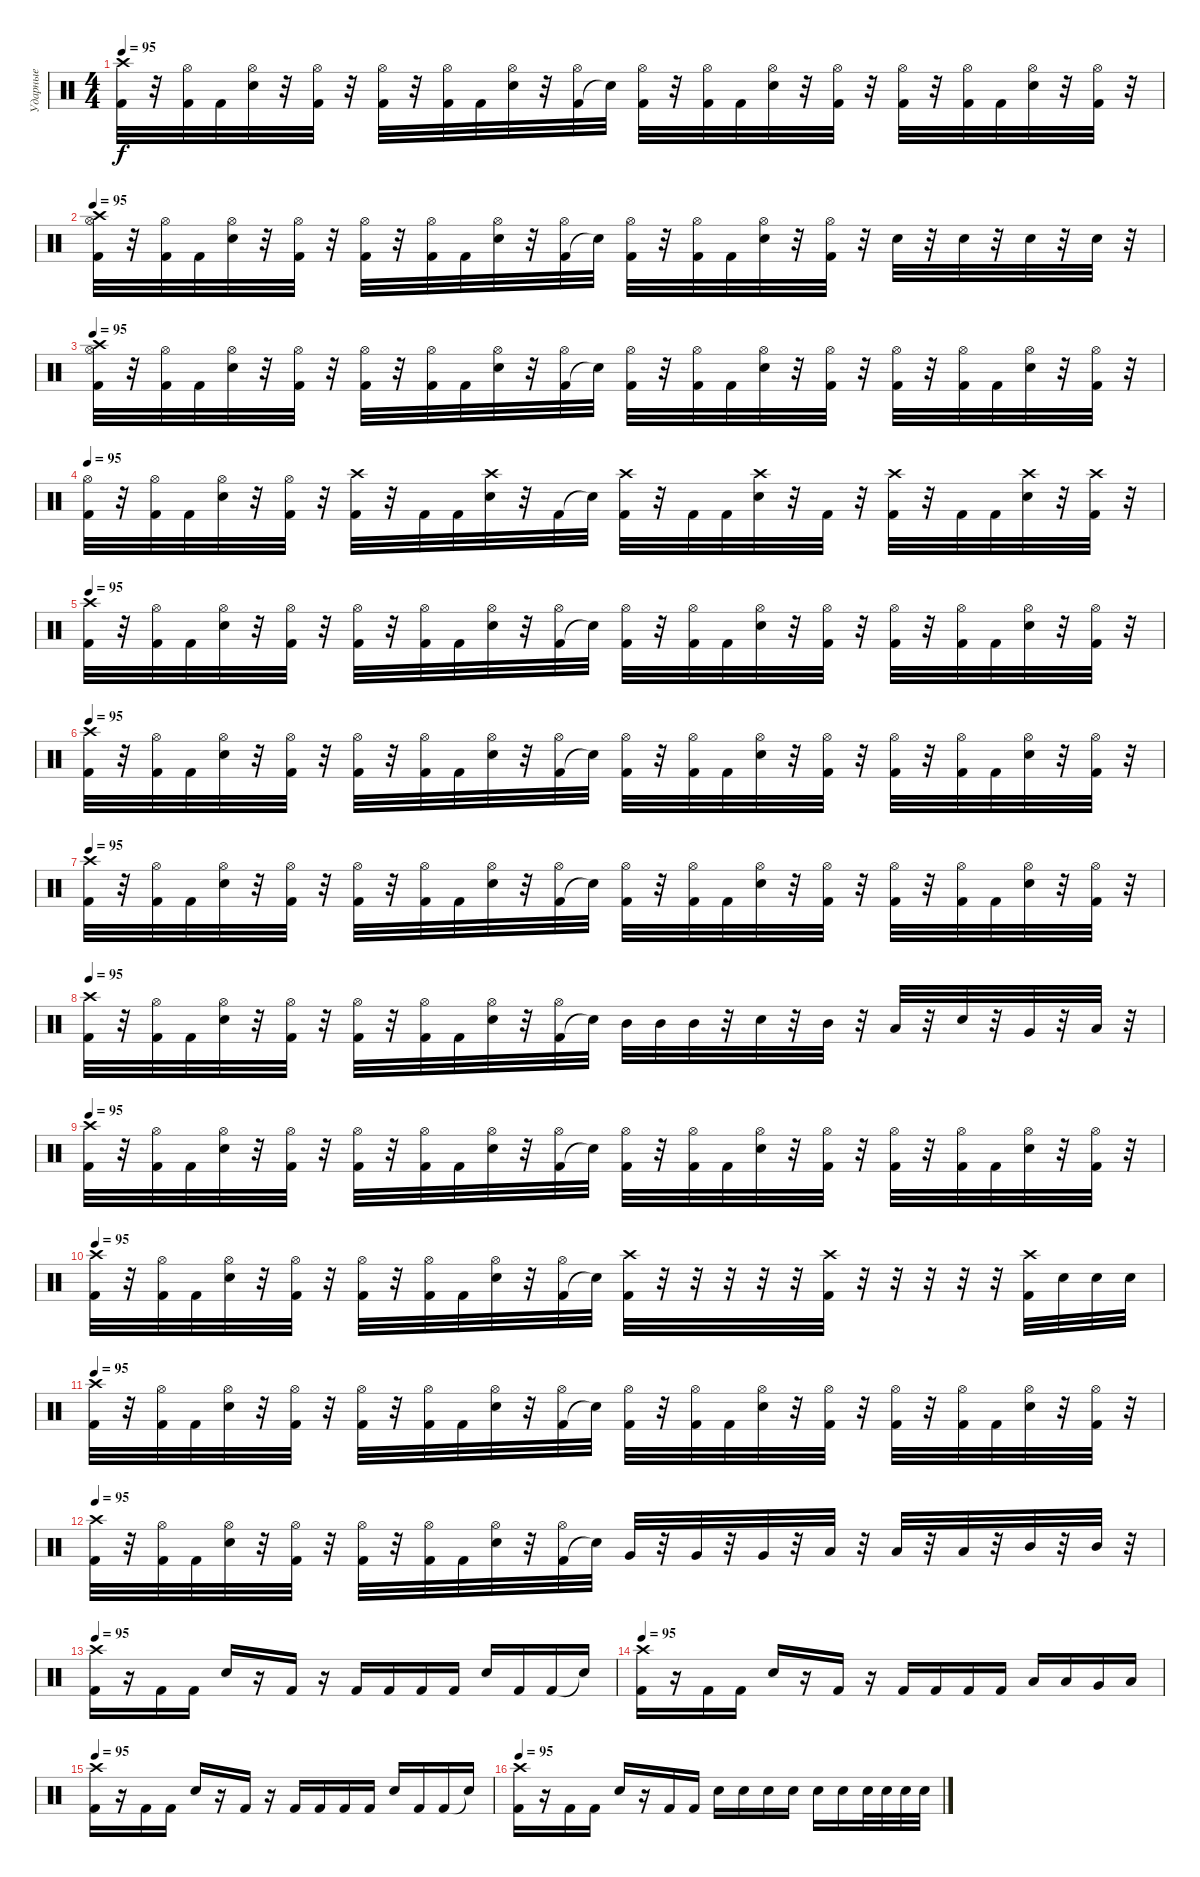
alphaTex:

\track ("Ударные" "Ударные") {instrument percussion}
\staff {score}
\articulation defaults
\ts (4 4)
\tempo 95
\clef neutral
\ks c
("Kick (hit) 2" "Crash high (hit)").32{dy f} r.32 ("Kick (hit) 2" "Hi-Hat (open)").32 "Kick (hit) 2".32 ("Electric Snare (hit)" "Hi-Hat (open)").32 r.32 ("Kick (hit) 2" "Hi-Hat (open)").32 r.32 ("Kick (hit) 2" "Hi-Hat (open)").32 r.32 ("Kick (hit) 2" "Hi-Hat (open)").32 "Kick (hit) 2".32 ("Electric Snare (hit)" "Hi-Hat (open)").32 r.32 ("Kick (hit) 2" "Hi-Hat (open)").32 "Snare (hit)"{t}.32 ("Kick (hit) 2" "Hi-Hat (open)").32 r.32 ("Kick (hit) 2" "Hi-Hat (open)").32 "Kick (hit) 2".32 ("Electric Snare (hit)" "Hi-Hat (open)").32 r.32 ("Kick (hit) 2" "Hi-Hat (open)").32 r.32 ("Kick (hit) 2" "Hi-Hat (open)").32 r.32 ("Kick (hit) 2" "Hi-Hat (open)").32 "Kick (hit) 2".32 ("Electric Snare (hit)" "Hi-Hat (open)").32 r.32 ("Kick (hit) 2" "Hi-Hat (open)").32 r.32 |
\tempo 95
("Kick (hit) 2" "Hi-Hat (open)" "Crash high (hit)").32 r.32 ("Kick (hit) 2" "Hi-Hat (open)").32 "Kick (hit) 2".32 ("Electric Snare (hit)" "Hi-Hat (open)").32 r.32 ("Kick (hit) 2" "Hi-Hat (open)").32 r.32 ("Kick (hit) 2" "Hi-Hat (open)").32 r.32 ("Kick (hit) 2" "Hi-Hat (open)").32 "Kick (hit) 2".32 ("Electric Snare (hit)" "Hi-Hat (open)").32 r.32 ("Kick (hit) 2" "Hi-Hat (open)").32 "Snare (hit)"{t}.32 ("Kick (hit) 2" "Hi-Hat (open)").32 r.32 ("Kick (hit) 2" "Hi-Hat (open)").32 "Kick (hit) 2".32 ("Electric Snare (hit)" "Hi-Hat (open)").32 r.32 ("Kick (hit) 2" "Hi-Hat (open)").32 r.32 "Electric Snare (hit)".32 r.32 "Electric Snare (hit)".32 r.32 "Electric Snare (hit)".32 r.32 "Electric Snare (hit)".32 r.32 |
\tempo 95
("Kick (hit) 2" "Hi-Hat (open)" "Crash high (hit)").32 r.32 ("Kick (hit) 2" "Hi-Hat (open)").32 "Kick (hit) 2".32 ("Electric Snare (hit)" "Hi-Hat (open)").32 r.32 ("Kick (hit) 2" "Hi-Hat (open)").32 r.32 ("Kick (hit) 2" "Hi-Hat (open)").32 r.32 ("Kick (hit) 2" "Hi-Hat (open)").32 "Kick (hit) 2".32 ("Electric Snare (hit)" "Hi-Hat (open)").32 r.32 ("Kick (hit) 2" "Hi-Hat (open)").32 "Snare (hit)"{t}.32 ("Kick (hit) 2" "Hi-Hat (open)").32 r.32 ("Kick (hit) 2" "Hi-Hat (open)").32 "Kick (hit) 2".32 ("Electric Snare (hit)" "Hi-Hat (open)").32 r.32 ("Kick (hit) 2" "Hi-Hat (open)").32 r.32 ("Kick (hit) 2" "Hi-Hat (open)").32 r.32 ("Kick (hit) 2" "Hi-Hat (open)").32 "Kick (hit) 2".32 ("Electric Snare (hit)" "Hi-Hat (open)").32 r.32 ("Kick (hit) 2" "Hi-Hat (open)").32 r.32 |
\tempo 95
("Kick (hit) 2" "Hi-Hat (open)").32 r.32 ("Kick (hit) 2" "Hi-Hat (open)").32 "Kick (hit) 2".32 ("Electric Snare (hit)" "Hi-Hat (open)").32 r.32 ("Kick (hit) 2" "Hi-Hat (open)").32 r.32 ("Kick (hit) 2" "Crash high (hit)").32 r.32 "Kick (hit) 2".32 "Kick (hit) 2".32 ("Electric Snare (hit)" "Crash high (hit)").32 r.32 "Kick (hit) 2".32 "Snare (hit)"{t}.32 ("Kick (hit) 2" "Crash high (hit)").32 r.32 "Kick (hit) 2".32 "Kick (hit) 2".32 ("Electric Snare (hit)" "Crash high (hit)").32 r.32 "Kick (hit) 2".32 r.32 ("Kick (hit) 2" "Crash high (hit)").32 r.32 "Kick (hit) 2".32 "Kick (hit) 2".32 ("Electric Snare (hit)" "Crash high (hit)").32 r.32 ("Kick (hit) 2" "Crash high (hit)").32 r.32 |
\tempo 95
("Kick (hit) 2" "Crash high (hit)").32 r.32 ("Kick (hit) 2" "Hi-Hat (open)").32 "Kick (hit) 2".32 ("Electric Snare (hit)" "Hi-Hat (open)").32 r.32 ("Kick (hit) 2" "Hi-Hat (open)").32 r.32 ("Kick (hit) 2" "Hi-Hat (open)").32 r.32 ("Kick (hit) 2" "Hi-Hat (open)").32 "Kick (hit) 2".32 ("Electric Snare (hit)" "Hi-Hat (open)").32 r.32 ("Kick (hit) 2" "Hi-Hat (open)").32 "Snare (hit)"{t}.32 ("Kick (hit) 2" "Hi-Hat (open)").32 r.32 ("Kick (hit) 2" "Hi-Hat (open)").32 "Kick (hit) 2".32 ("Electric Snare (hit)" "Hi-Hat (open)").32 r.32 ("Kick (hit) 2" "Hi-Hat (open)").32 r.32 ("Kick (hit) 2" "Hi-Hat (open)").32 r.32 ("Kick (hit) 2" "Hi-Hat (open)").32 "Kick (hit) 2".32 ("Electric Snare (hit)" "Hi-Hat (open)").32 r.32 ("Kick (hit) 2" "Hi-Hat (open)").32 r.32 |
\tempo 95
("Kick (hit) 2" "Crash high (hit)").32 r.32 ("Kick (hit) 2" "Hi-Hat (open)").32 "Kick (hit) 2".32 ("Electric Snare (hit)" "Hi-Hat (open)").32 r.32 ("Kick (hit) 2" "Hi-Hat (open)").32 r.32 ("Kick (hit) 2" "Hi-Hat (open)").32 r.32 ("Kick (hit) 2" "Hi-Hat (open)").32 "Kick (hit) 2".32 ("Electric Snare (hit)" "Hi-Hat (open)").32 r.32 ("Kick (hit) 2" "Hi-Hat (open)").32 "Snare (hit)"{t}.32 ("Kick (hit) 2" "Hi-Hat (open)").32 r.32 ("Kick (hit) 2" "Hi-Hat (open)").32 "Kick (hit) 2".32 ("Electric Snare (hit)" "Hi-Hat (open)").32 r.32 ("Kick (hit) 2" "Hi-Hat (open)").32 r.32 ("Kick (hit) 2" "Hi-Hat (open)").32 r.32 ("Kick (hit) 2" "Hi-Hat (open)").32 "Kick (hit) 2".32 ("Electric Snare (hit)" "Hi-Hat (open)").32 r.32 ("Kick (hit) 2" "Hi-Hat (open)").32 r.32 |
\tempo 95
("Kick (hit) 2" "Crash high (hit)").32 r.32 ("Kick (hit) 2" "Hi-Hat (open)").32 "Kick (hit) 2".32 ("Electric Snare (hit)" "Hi-Hat (open)").32 r.32 ("Kick (hit) 2" "Hi-Hat (open)").32 r.32 ("Kick (hit) 2" "Hi-Hat (open)").32 r.32 ("Kick (hit) 2" "Hi-Hat (open)").32 "Kick (hit) 2".32 ("Electric Snare (hit)" "Hi-Hat (open)").32 r.32 ("Kick (hit) 2" "Hi-Hat (open)").32 "Snare (hit)"{t}.32 ("Kick (hit) 2" "Hi-Hat (open)").32 r.32 ("Kick (hit) 2" "Hi-Hat (open)").32 "Kick (hit) 2".32 ("Electric Snare (hit)" "Hi-Hat (open)").32 r.32 ("Kick (hit) 2" "Hi-Hat (open)").32 r.32 ("Kick (hit) 2" "Hi-Hat (open)").32 r.32 ("Kick (hit) 2" "Hi-Hat (open)").32 "Kick (hit) 2".32 ("Electric Snare (hit)" "Hi-Hat (open)").32 r.32 ("Kick (hit) 2" "Hi-Hat (open)").32 r.32 |
\tempo 95
("Kick (hit) 2" "Crash high (hit)").32 r.32 ("Kick (hit) 2" "Hi-Hat (open)").32 "Kick (hit) 2".32 ("Electric Snare (hit)" "Hi-Hat (open)").32 r.32 ("Kick (hit) 2" "Hi-Hat (open)").32 r.32 ("Kick (hit) 2" "Hi-Hat (open)").32 r.32 ("Kick (hit) 2" "Hi-Hat (open)").32 "Kick (hit) 2".32 ("Electric Snare (hit)" "Hi-Hat (open)").32 r.32 ("Kick (hit) 2" "Hi-Hat (open)").32 "Snare (hit)"{t}.32 "Mid Tom (hit)".32 "Mid Tom (hit)".32 "Mid Tom (hit)".32 r.32 "Electric Snare (hit)".32 r.32 "Mid Tom (hit)".32 r.32 "Low Tom (hit)".32 r.32 "Electric Snare (hit)".32 r.32 "Very Low Tom (hit)".32 r.32 "Low Floor Tom (hit)".32 r.32 |
\tempo 95
("Kick (hit) 2" "Crash high (hit)").32 r.32 ("Kick (hit) 2" "Hi-Hat (open)").32 "Kick (hit) 2".32 ("Electric Snare (hit)" "Hi-Hat (open)").32 r.32 ("Kick (hit) 2" "Hi-Hat (open)").32 r.32 ("Kick (hit) 2" "Hi-Hat (open)").32 r.32 ("Kick (hit) 2" "Hi-Hat (open)").32 "Kick (hit) 2".32 ("Electric Snare (hit)" "Hi-Hat (open)").32 r.32 ("Kick (hit) 2" "Hi-Hat (open)").32 "Snare (hit)"{t}.32 ("Kick (hit) 2" "Hi-Hat (open)").32 r.32 ("Kick (hit) 2" "Hi-Hat (open)").32 "Kick (hit) 2".32 ("Electric Snare (hit)" "Hi-Hat (open)").32 r.32 ("Kick (hit) 2" "Hi-Hat (open)").32 r.32 ("Kick (hit) 2" "Hi-Hat (open)").32 r.32 ("Kick (hit) 2" "Hi-Hat (open)").32 "Kick (hit) 2".32 ("Electric Snare (hit)" "Hi-Hat (open)").32 r.32 ("Kick (hit) 2" "Hi-Hat (open)").32 r.32 |
\tempo 95
("Kick (hit) 2" "Crash high (hit)").32 r.32 ("Kick (hit) 2" "Hi-Hat (open)").32 "Kick (hit) 2".32 ("Electric Snare (hit)" "Hi-Hat (open)").32 r.32 ("Kick (hit) 2" "Hi-Hat (open)").32 r.32 ("Kick (hit) 2" "Hi-Hat (open)").32 r.32 ("Kick (hit) 2" "Hi-Hat (open)").32 "Kick (hit) 2".32 ("Electric Snare (hit)" "Hi-Hat (open)").32 r.32 ("Kick (hit) 2" "Hi-Hat (open)").32 "Snare (hit)"{t}.32 ("Kick (hit) 2" "Crash high (hit)").32 r.32 r.32 r.32 r.32 r.32 ("Kick (hit) 2" "Crash high (hit)").32 r.32 r.32 r.32 r.32 r.32 ("Kick (hit) 2" "Crash high (hit)").32 "Electric Snare (hit)".32 "Electric Snare (hit)".32 "Electric Snare (hit)".32 |
\tempo 95
("Kick (hit) 2" "Crash high (hit)").32 r.32 ("Kick (hit) 2" "Hi-Hat (open)").32 "Kick (hit) 2".32 ("Electric Snare (hit)" "Hi-Hat (open)").32 r.32 ("Kick (hit) 2" "Hi-Hat (open)").32 r.32 ("Kick (hit) 2" "Hi-Hat (open)").32 r.32 ("Kick (hit) 2" "Hi-Hat (open)").32 "Kick (hit) 2".32 ("Electric Snare (hit)" "Hi-Hat (open)").32 r.32 ("Kick (hit) 2" "Hi-Hat (open)").32 "Snare (hit)"{t}.32 ("Kick (hit) 2" "Hi-Hat (open)").32 r.32 ("Kick (hit) 2" "Hi-Hat (open)").32 "Kick (hit) 2".32 ("Electric Snare (hit)" "Hi-Hat (open)").32 r.32 ("Kick (hit) 2" "Hi-Hat (open)").32 r.32 ("Kick (hit) 2" "Hi-Hat (open)").32 r.32 ("Kick (hit) 2" "Hi-Hat (open)").32 "Kick (hit) 2".32 ("Electric Snare (hit)" "Hi-Hat (open)").32 r.32 ("Kick (hit) 2" "Hi-Hat (open)").32 r.32 |
\tempo 95
("Kick (hit) 2" "Crash high (hit)").32 r.32 ("Kick (hit) 2" "Hi-Hat (open)").32 "Kick (hit) 2".32 ("Electric Snare (hit)" "Hi-Hat (open)").32 r.32 ("Kick (hit) 2" "Hi-Hat (open)").32 r.32 ("Kick (hit) 2" "Hi-Hat (open)").32 r.32 ("Kick (hit) 2" "Hi-Hat (open)").32 "Kick (hit) 2".32 ("Electric Snare (hit)" "Hi-Hat (open)").32 r.32 ("Kick (hit) 2" "Hi-Hat (open)").32 "Snare (hit)"{t}.32 "Very Low Tom (hit)".32 r.32 "Very Low Tom (hit)".32 r.32 "Very Low Tom (hit)".32 r.32 "Low Tom (hit)".32 r.32 "Low Tom (hit)".32 r.32 "Low Tom (hit)".32 r.32 "Mid Tom (hit)".32 r.32 "Mid Tom (hit)".32 r.32 |
\tempo 95
("Kick (hit) 2" "Crash high (hit)").16 r.16 "Kick (hit) 2".16 "Kick (hit) 2".16 "Electric Snare (hit)".16 r.16 "Kick (hit) 2".16 r.16 "Kick (hit) 2".16 "Kick (hit) 2".16 "Kick (hit) 2".16 "Kick (hit) 2".16 "Electric Snare (hit)".16 "Kick (hit) 2".16 "Kick (hit) 2".16 "Snare (hit)"{t}.16 |
\tempo 95
("Kick (hit) 2" "Crash high (hit)").16 r.16 "Kick (hit) 2".16 "Kick (hit) 2".16 "Electric Snare (hit)".16 r.16 "Kick (hit) 2".16 r.16 "Kick (hit) 2".16 "Kick (hit) 2".16 "Kick (hit) 2".16 "Kick (hit) 2".16 "Low Tom (hit)".16 "Low Tom (hit)".16 "Very Low Tom (hit)".16 "Low Floor Tom (hit)".16 |
\tempo 95
("Kick (hit) 2" "Crash high (hit)").16 r.16 "Kick (hit) 2".16 "Kick (hit) 2".16 "Electric Snare (hit)".16 r.16 "Kick (hit) 2".16 r.16 "Kick (hit) 2".16 "Kick (hit) 2".16 "Kick (hit) 2".16 "Kick (hit) 2".16 "Electric Snare (hit)".16 "Kick (hit) 2".16 "Kick (hit) 2".16 "Snare (hit)"{t}.16 |
\tempo 95
("Kick (hit) 2" "Crash high (hit)").16 r.16 "Kick (hit) 2".16 "Kick (hit) 2".16 "Electric Snare (hit)".16 r.16 "Kick (hit) 2".16 "Kick (hit) 2".16 "Electric Snare (hit)".16 "Electric Snare (hit)".16 "Electric Snare (hit)".16 "Electric Snare (hit)".16 "Electric Snare (hit)".16 "Electric Snare (hit)".16 "Electric Snare (hit)".32 "Electric Snare (hit)".32 "Electric Snare (hit)".32 "Electric Snare (hit)".32
